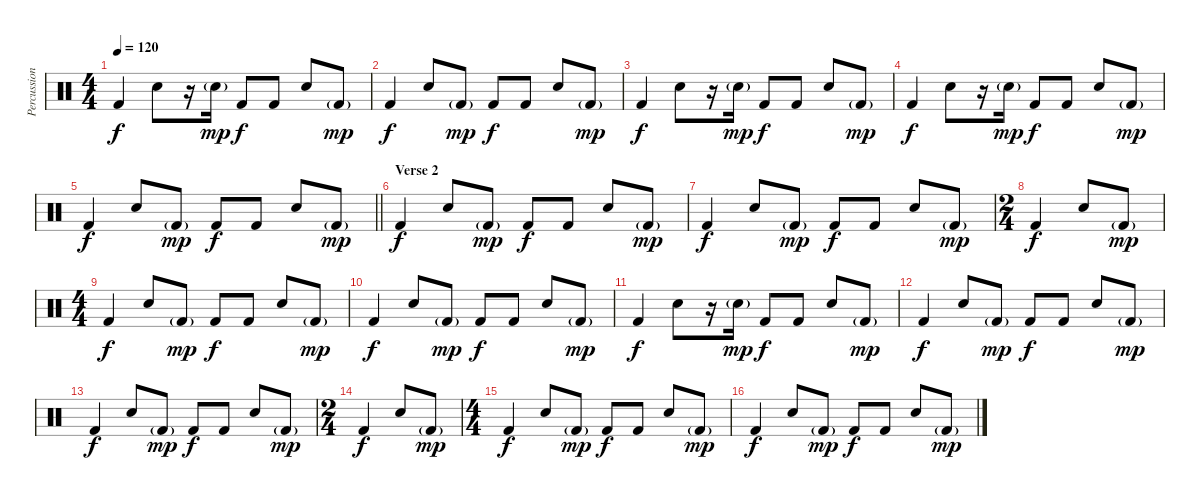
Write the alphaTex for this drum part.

\track ("Percussion" "Percussion") {instrument percussion}
\staff {score}
\articulation defaults
\ts (4 4)
\tempo 120
\clef neutral
\ks c "Kick (hit) 2".4{dy f} "Snare (hit) 2".8
r.16 "Snare (hit) 2"{g}.16{dy mp} "Kick (hit) 2".8{dy f} "Kick (hit) 2".8 "Snare (hit) 2".8 "Kick (hit) 2"{g}.8{dy mp} |
"Kick (hit) 2".4{dy f} "Snare (hit) 2".8 "Kick (hit) 2"{g}.8{dy mp} "Kick (hit) 2".8{dy f} "Kick (hit) 2".8 "Snare (hit) 2".8 "Kick (hit) 2"{g}.8{dy mp} |
"Kick (hit) 2".4{dy f} "Snare (hit) 2".8 r.16 "Snare (hit) 2"{g}.16{dy mp} "Kick (hit) 2".8{dy f} "Kick (hit) 2".8 "Snare (hit) 2".8 "Kick (hit) 2"{g}.8{dy mp} |
"Kick (hit) 2".4{dy f} "Snare (hit) 2".8 r.16 "Snare (hit) 2"{g}.16{dy mp} "Kick (hit) 2".8{dy f} "Kick (hit) 2".8 "Snare (hit) 2".8 "Kick (hit) 2"{g}.8{dy mp} |
\barLineRight lightlight "Kick (hit) 2".4{dy f} "Snare (hit) 2".8 "Kick (hit) 2"{g}.8{dy mp} "Kick (hit) 2".8{dy f} "Kick (hit) 2".8 "Snare (hit) 2".8 "Kick (hit) 2"{g}.8{dy mp}
|
\section ("" "Verse 2")
"Kick (hit) 2".4{dy f} "Snare (hit) 2".8 "Kick (hit) 2"{g}.8{dy mp} "Kick (hit) 2".8{dy f} "Kick (hit) 2".8 "Snare (hit) 2".8 "Kick (hit) 2"{g}.8{dy mp} |
"Kick (hit) 2".4{dy f} "Snare (hit) 2".8 "Kick (hit) 2"{g}.8{dy mp} "Kick (hit) 2".8{dy f} "Kick (hit) 2".8 "Snare (hit) 2".8 "Kick (hit) 2"{g}.8{dy mp} |
\ts (2 4)
"Kick (hit) 2".4{dy f} "Snare (hit) 2".8 "Kick (hit) 2"{g}.8{dy mp} |
\ts (4 4)
"Kick (hit) 2".4{dy f} "Snare (hit) 2".8 "Kick (hit) 2"{g}.8{dy mp} "Kick (hit) 2".8{dy f} "Kick (hit) 2".8 "Snare (hit) 2".8 "Kick (hit) 2"{g}.8{dy mp} |
"Kick (hit) 2".4{dy f} "Snare (hit) 2".8 "Kick (hit) 2"{g}.8{dy mp} "Kick (hit) 2".8{dy f} "Kick (hit) 2".8 "Snare (hit) 2".8 "Kick (hit) 2"{g}.8{dy mp} |
"Kick (hit) 2".4{dy f} "Snare (hit) 2".8 r.16 "Snare (hit) 2"{g}.16{dy mp} "Kick (hit) 2".8{dy f} "Kick (hit) 2".8 "Snare (hit) 2".8 "Kick (hit) 2"{g}.8{dy mp} |
"Kick (hit) 2".4{dy f} "Snare (hit) 2".8 "Kick (hit) 2"{g}.8{dy mp} "Kick (hit) 2".8{dy f} "Kick (hit) 2".8 "Snare (hit) 2".8 "Kick (hit) 2"{g}.8{dy mp} |
"Kick (hit) 2".4{dy f} "Snare (hit) 2".8 "Kick (hit) 2"{g}.8{dy mp} "Kick (hit) 2".8{dy f} "Kick (hit) 2".8 "Snare (hit) 2".8 "Kick (hit) 2"{g}.8{dy mp} |
\ts (2 4)
"Kick (hit) 2".4{dy f} "Snare (hit) 2".8 "Kick (hit) 2"{g}.8{dy mp} |
\ts (4 4)
"Kick (hit) 2".4{dy f} "Snare (hit) 2".8 "Kick (hit) 2"{g}.8{dy mp} "Kick (hit) 2".8{dy f} "Kick (hit) 2".8 "Snare (hit) 2".8 "Kick (hit) 2"{g}.8{dy mp} |
"Kick (hit) 2".4{dy f} "Snare (hit) 2".8 "Kick (hit) 2"{g}.8{dy mp} "Kick (hit) 2".8{dy f} "Kick (hit) 2".8 "Snare (hit) 2".8 "Kick (hit) 2"{g}.8{dy mp}
